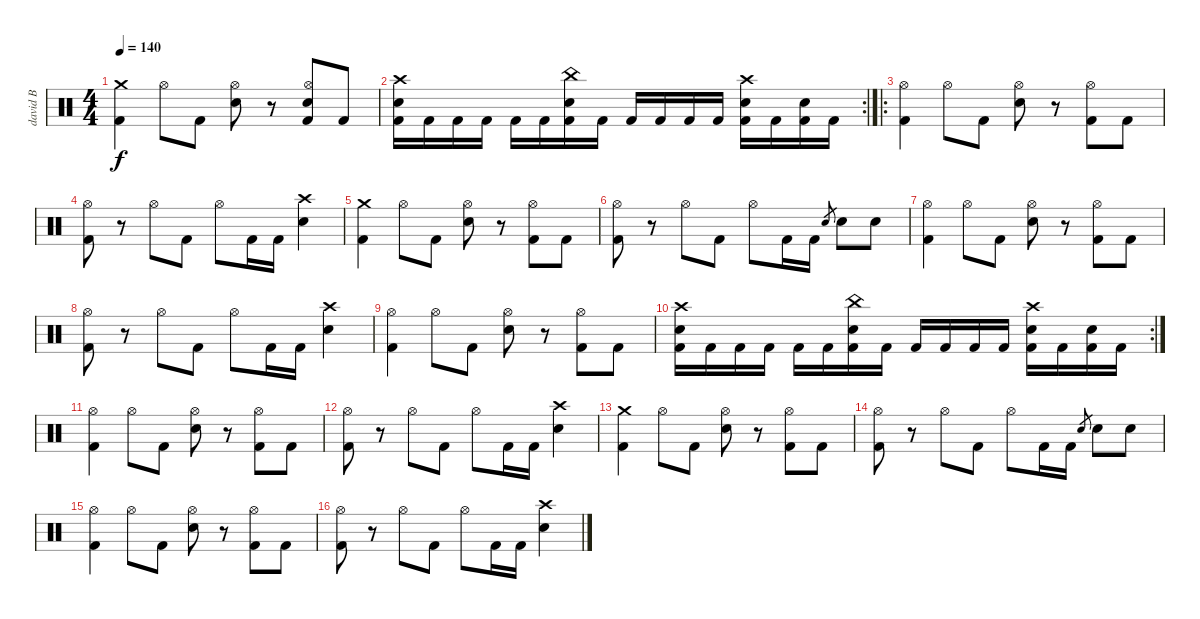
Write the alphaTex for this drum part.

\track ("david B" "david B") {instrument percussion}
\staff {score}
\articulation defaults
\ts (4 4)
\tempo 140
\clef neutral
\ks c
("Crash medium (hit)" "Kick (hit) 2").4{dy f} "Hi-Hat (open)".8 "Kick (hit) 2".8 ("Hi-Hat (open)" "Electric Snare (hit)").8 r.8 ("Hi-Hat (open)" "Electric Snare (hit)" "Kick (hit) 2").8 "Kick (hit) 2".8 |
\rc 2
("Crash high (hit)" "Electric Snare (hit)" "Kick (hit) 2").16 "Kick (hit) 2".16 "Kick (hit) 2".16 "Kick (hit) 2".16 "Kick (hit) 2".16 "Kick (hit) 2".16 ("China (hit)" "Electric Snare (hit)" "Kick (hit) 2").16 "Kick (hit) 2".16 "Kick (hit) 2".16 "Kick (hit) 2".16 "Kick (hit) 2".16 "Kick (hit) 2".16 ("Crash high (hit)" "Electric Snare (hit)" "Kick (hit) 2").16 "Kick (hit) 2".16 ("Electric Snare (hit)" "Kick (hit) 2").16 "Kick (hit) 2".16 |
\ro
("Hi-Hat (open)" "Kick (hit) 2").4 "Hi-Hat (open)".8 "Kick (hit) 2".8 ("Hi-Hat (open)" "Electric Snare (hit)").8 r.8 ("Hi-Hat (open)" "Kick (hit) 2").8 "Kick (hit) 2".8 |
("Hi-Hat (open)" "Kick (hit) 2").8 r.8 "Hi-Hat (open)".8 "Kick (hit) 2".8 "Hi-Hat (open)".8 "Kick (hit) 2".16 "Kick (hit) 2".16 ("Crash high (hit)" "Electric Snare (hit)").4 |
("Crash medium (hit)" "Kick (hit) 2").4 "Hi-Hat (open)".8 "Kick (hit) 2".8 ("Hi-Hat (open)" "Electric Snare (hit)").8 r.8 ("Hi-Hat (open)" "Kick (hit) 2").8 "Kick (hit) 2".8 |
("Hi-Hat (open)" "Kick (hit) 2").8 r.8 "Hi-Hat (open)".8 "Kick (hit) 2".8 "Hi-Hat (open)".8 "Kick (hit) 2".16 "Kick (hit) 2".16 "Electric Snare (hit)".8{gr} "Electric Snare (hit)".8 "Electric Snare (hit)".8 |
("Hi-Hat (open)" "Kick (hit) 2").4 "Hi-Hat (open)".8 "Kick (hit) 2".8 ("Hi-Hat (open)" "Electric Snare (hit)").8 r.8 ("Hi-Hat (open)" "Kick (hit) 2").8 "Kick (hit) 2".8 |
("Hi-Hat (open)" "Kick (hit) 2").8 r.8 "Hi-Hat (open)".8 "Kick (hit) 2".8 "Hi-Hat (open)".8 "Kick (hit) 2".16 "Kick (hit) 2".16 ("Crash high (hit)" "Electric Snare (hit)").4 |
("Hi-Hat (open)" "Kick (hit) 2").4 "Hi-Hat (open)".8 "Kick (hit) 2".8 ("Hi-Hat (open)" "Electric Snare (hit)").8 r.8 ("Hi-Hat (open)" "Kick (hit) 2").8 "Kick (hit) 2".8 |
\rc 2
("Crash high (hit)" "Electric Snare (hit)" "Kick (hit) 2").16 "Kick (hit) 2".16 "Kick (hit) 2".16 "Kick (hit) 2".16 "Kick (hit) 2".16 "Kick (hit) 2".16 ("China (hit)" "Electric Snare (hit)" "Kick (hit) 2").16 "Kick (hit) 2".16 "Kick (hit) 2".16 "Kick (hit) 2".16 "Kick (hit) 2".16 "Kick (hit) 2".16 ("Crash high (hit)" "Electric Snare (hit)" "Kick (hit) 2").16 "Kick (hit) 2".16 ("Electric Snare (hit)" "Kick (hit) 2").16 "Kick (hit) 2".16 |
("Hi-Hat (open)" "Kick (hit) 2").4 "Hi-Hat (open)".8 "Kick (hit) 2".8 ("Hi-Hat (open)" "Electric Snare (hit)").8 r.8 ("Hi-Hat (open)" "Kick (hit) 2").8 "Kick (hit) 2".8 |
("Hi-Hat (open)" "Kick (hit) 2").8 r.8 "Hi-Hat (open)".8 "Kick (hit) 2".8 "Hi-Hat (open)".8 "Kick (hit) 2".16 "Kick (hit) 2".16 ("Crash high (hit)" "Electric Snare (hit)").4 |
("Crash medium (hit)" "Kick (hit) 2").4 "Hi-Hat (open)".8 "Kick (hit) 2".8 ("Hi-Hat (open)" "Electric Snare (hit)").8 r.8 ("Hi-Hat (open)" "Kick (hit) 2").8 "Kick (hit) 2".8 |
("Hi-Hat (open)" "Kick (hit) 2").8 r.8 "Hi-Hat (open)".8 "Kick (hit) 2".8 "Hi-Hat (open)".8 "Kick (hit) 2".16 "Kick (hit) 2".16 "Electric Snare (hit)".8{gr} "Electric Snare (hit)".8 "Electric Snare (hit)".8 |
("Hi-Hat (open)" "Kick (hit) 2").4 "Hi-Hat (open)".8 "Kick (hit) 2".8 ("Hi-Hat (open)" "Electric Snare (hit)").8 r.8 ("Hi-Hat (open)" "Kick (hit) 2").8 "Kick (hit) 2".8 |
("Hi-Hat (open)" "Kick (hit) 2").8 r.8 "Hi-Hat (open)".8 "Kick (hit) 2".8 "Hi-Hat (open)".8 "Kick (hit) 2".16 "Kick (hit) 2".16 ("Crash high (hit)" "Electric Snare (hit)").4
